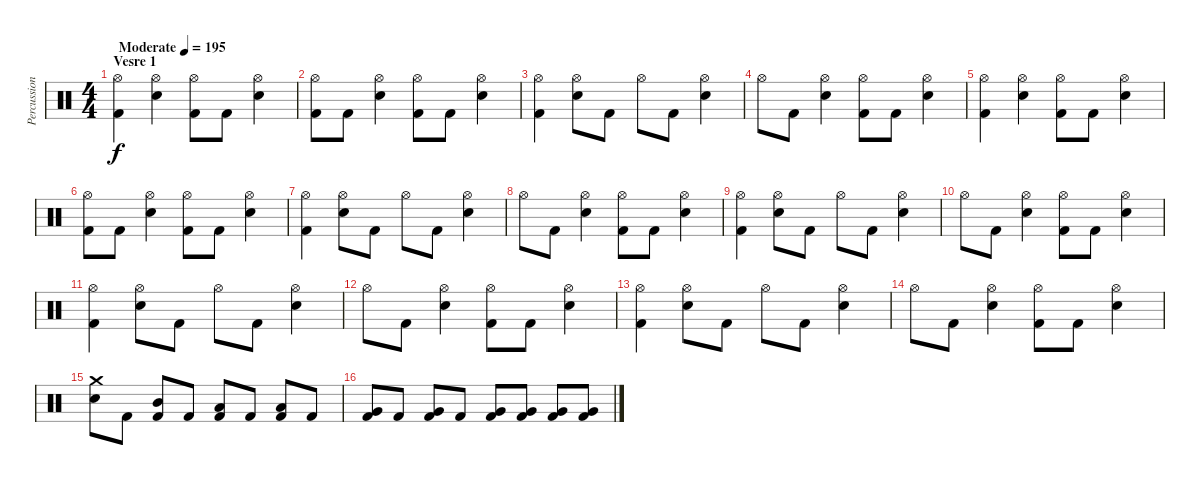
\track ("Percussion" "Percussion") {instrument percussion}
\staff {score}
\articulation defaults
\ts (4 4)
\section ("" "Vesre 1")
\tempo (195 "Moderate")
\clef neutral
\ks c
("Hi-Hat (open)" "Kick (hit) 2").4{dy f} ("Hi-Hat (open)" "Snare (hit) 2").4 ("Hi-Hat (open)" "Kick (hit) 2").8 "Kick (hit) 2".8 ("Hi-Hat (open)" "Snare (hit) 2").4 |
("Hi-Hat (open)" "Kick (hit) 2").8 "Kick (hit) 2".8 ("Hi-Hat (open)" "Snare (hit) 2").4 ("Hi-Hat (open)" "Kick (hit) 2").8 "Kick (hit) 2".8 ("Hi-Hat (open)" "Snare (hit) 2").4 |
("Hi-Hat (open)" "Kick (hit) 2").4 ("Hi-Hat (open)" "Snare (hit) 2").8 "Kick (hit) 2".8 "Hi-Hat (open)".8 "Kick (hit) 2".8 ("Hi-Hat (open)" "Snare (hit) 2").4 |
"Hi-Hat (open)".8 "Kick (hit) 2".8 ("Hi-Hat (open)" "Snare (hit) 2").4 ("Hi-Hat (open)" "Kick (hit) 2").8 "Kick (hit) 2".8 ("Hi-Hat (open)" "Snare (hit) 2").4 |
("Hi-Hat (open)" "Kick (hit) 2").4 ("Hi-Hat (open)" "Snare (hit) 2").4 ("Hi-Hat (open)" "Kick (hit) 2").8 "Kick (hit) 2".8 ("Hi-Hat (open)" "Snare (hit) 2").4 |
("Hi-Hat (open)" "Kick (hit) 2").8 "Kick (hit) 2".8 ("Hi-Hat (open)" "Snare (hit) 2").4 ("Hi-Hat (open)" "Kick (hit) 2").8 "Kick (hit) 2".8 ("Hi-Hat (open)" "Snare (hit) 2").4 |
("Hi-Hat (open)" "Kick (hit) 2").4 ("Hi-Hat (open)" "Snare (hit) 2").8 "Kick (hit) 2".8 "Hi-Hat (open)".8 "Kick (hit) 2".8 ("Hi-Hat (open)" "Snare (hit) 2").4 |
"Hi-Hat (open)".8 "Kick (hit) 2".8 ("Hi-Hat (open)" "Snare (hit) 2").4 ("Hi-Hat (open)" "Kick (hit) 2").8 "Kick (hit) 2".8 ("Hi-Hat (open)" "Snare (hit) 2").4 |
("Hi-Hat (open)" "Kick (hit) 2").4 ("Hi-Hat (open)" "Snare (hit) 2").8 "Kick (hit) 2".8 "Hi-Hat (open)".8 "Kick (hit) 2".8 ("Hi-Hat (open)" "Snare (hit) 2").4 |
"Hi-Hat (open)".8 "Kick (hit) 2".8 ("Hi-Hat (open)" "Snare (hit) 2").4 ("Hi-Hat (open)" "Kick (hit) 2").8 "Kick (hit) 2".8 ("Hi-Hat (open)" "Snare (hit) 2").4 |
("Hi-Hat (open)" "Kick (hit) 2").4 ("Hi-Hat (open)" "Snare (hit) 2").8 "Kick (hit) 2".8 "Hi-Hat (open)".8 "Kick (hit) 2".8 ("Hi-Hat (open)" "Snare (hit) 2").4 |
"Hi-Hat (open)".8 "Kick (hit) 2".8 ("Hi-Hat (open)" "Snare (hit) 2").4 ("Hi-Hat (open)" "Kick (hit) 2").8 "Kick (hit) 2".8 ("Hi-Hat (open)" "Snare (hit) 2").4 |
("Hi-Hat (open)" "Kick (hit) 2").4 ("Hi-Hat (open)" "Snare (hit) 2").8 "Kick (hit) 2".8 "Hi-Hat (open)".8 "Kick (hit) 2".8 ("Hi-Hat (open)" "Snare (hit) 2").4 |
"Hi-Hat (open)".8 "Kick (hit) 2".8 ("Hi-Hat (open)" "Snare (hit) 2").4 ("Hi-Hat (open)" "Kick (hit) 2").8 "Kick (hit) 2".8 ("Hi-Hat (open)" "Snare (hit) 2").4 |
("Crash medium (hit)" "Snare (hit) 2").8 "Kick (hit) 2".8 ("Mid Tom (hit)" "Kick (hit) 2").8 "Kick (hit) 2".8 ("Low Tom (hit)" "Kick (hit) 2").8 "Kick (hit) 2".8 ("Low Tom (hit)" "Kick (hit) 2").8 "Kick (hit) 2".8 |
("Very Low Tom (hit)" "Kick (hit) 2").8 "Kick (hit) 2".8 ("Very Low Tom (hit)" "Kick (hit) 2").8 "Kick (hit) 2".8 ("Very Low Tom (hit)" "Kick (hit) 2").8 ("Very Low Tom (hit)" "Kick (hit) 2").8 ("Very Low Tom (hit)" "Kick (hit) 2").8 ("Very Low Tom (hit)" "Kick (hit) 2").8
